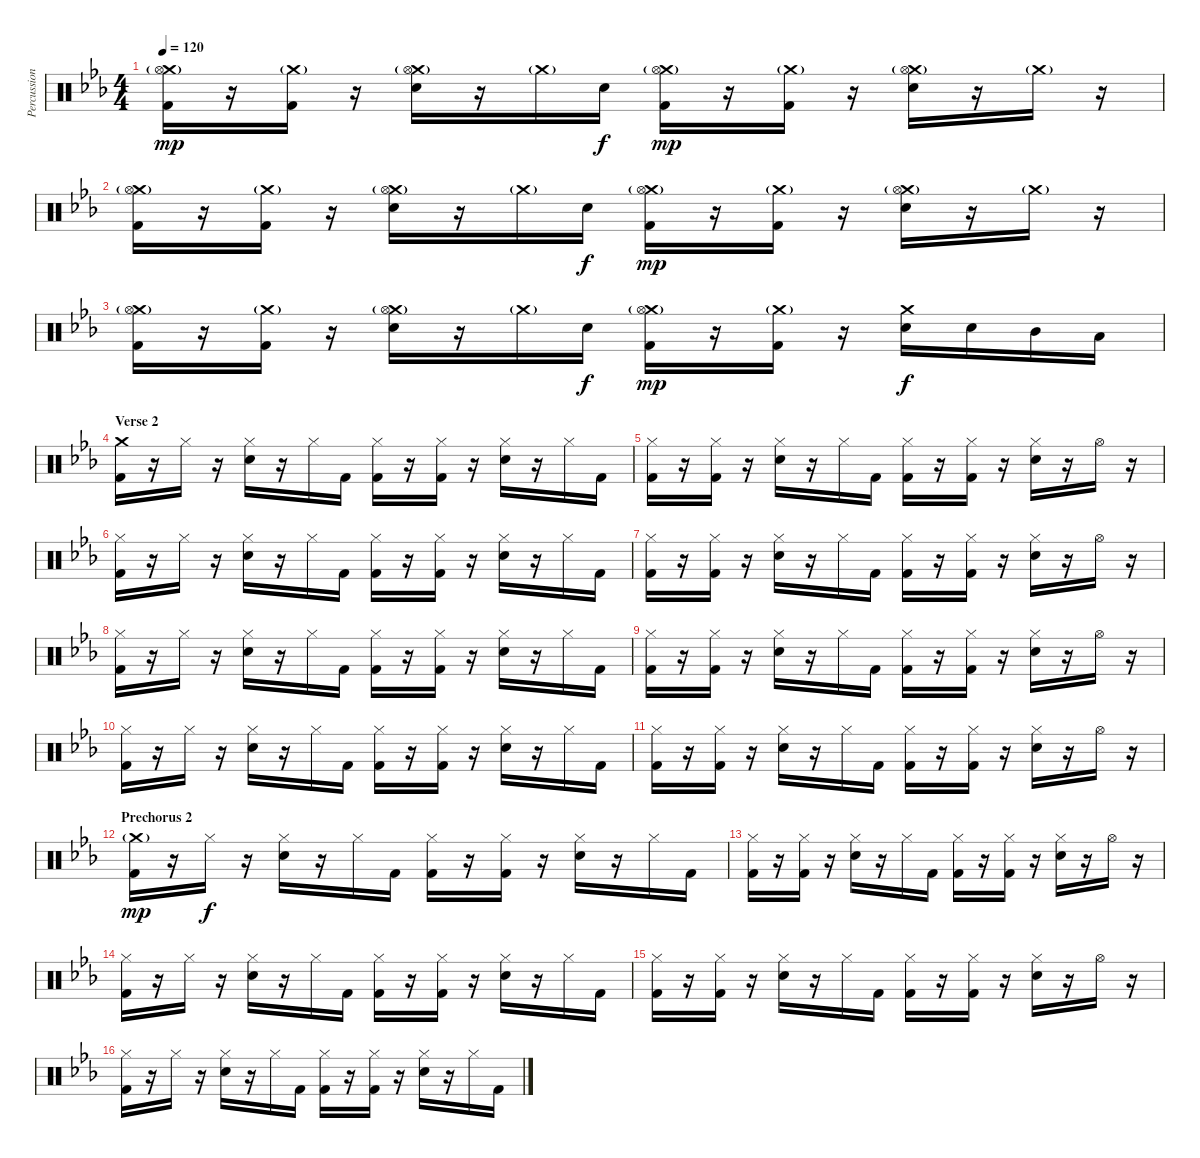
\track ("Percussion" "Percussion") {instrument percussion}
\staff {score}
\articulation defaults
\ts (4 4)
\tempo 120
\clef neutral
\ks eb
("Crash medium (hit)"{g} "Hi-Hat (open)" "Kick (hit) 2").16{dy mp} r.16 ("Crash medium (hit)"{g} "Kick (hit) 2").16 r.16 ("Crash medium (hit)"{g} "Hi-Hat (open)" "Electric Snare (hit)").16 r.16 "Crash medium (hit)"{g}.16 "Electric Snare (hit)".16{dy f} ("Crash medium (hit)"{g} "Hi-Hat (open)" "Kick (hit) 2").16{dy mp} r.16 ("Crash medium (hit)"{g} "Kick (hit) 2").16 r.16 ("Crash medium (hit)"{g} "Hi-Hat (open)" "Electric Snare (hit)").16 r.16 "Crash medium (hit)"{g}.16 r.16 |
("Crash medium (hit)"{g} "Hi-Hat (open)" "Kick (hit) 2").16 r.16 ("Crash medium (hit)"{g} "Kick (hit) 2").16 r.16 ("Crash medium (hit)"{g} "Hi-Hat (open)" "Electric Snare (hit)").16 r.16 "Crash medium (hit)"{g}.16 "Electric Snare (hit)".16{dy f} ("Crash medium (hit)"{g} "Hi-Hat (open)" "Kick (hit) 2").16{dy mp} r.16 ("Crash medium (hit)"{g} "Kick (hit) 2").16 r.16 ("Crash medium (hit)"{g} "Hi-Hat (open)" "Electric Snare (hit)").16 r.16 "Crash medium (hit)"{g}.16 r.16 |
("Crash medium (hit)"{g} "Hi-Hat (open)" "Kick (hit) 2").16 r.16 ("Crash medium (hit)"{g} "Kick (hit) 2").16 r.16 ("Crash medium (hit)"{g} "Hi-Hat (open)" "Electric Snare (hit)").16 r.16 "Crash medium (hit)"{g}.16 "Electric Snare (hit)".16{dy f} ("Crash medium (hit)"{g} "Hi-Hat (open)" "Kick (hit) 2").16{dy mp} r.16 ("Crash medium (hit)"{g} "Kick (hit) 2").16 r.16 ("Crash medium (hit)" "Electric Snare (hit)").16{dy f} "Electric Snare (hit)".16 "Mid Tom (hit)".16 "Low Tom (hit)".16 |
\section ("" "Verse 2")
("Crash medium (hit)" "Kick (hit) 2").16 r.16 "Hi-Hat (closed)".16 r.16 ("Hi-Hat (closed)" "Electric Snare (hit)").16 r.16 "Hi-Hat (closed)".16 "Kick (hit) 2".16 ("Hi-Hat (closed)" "Kick (hit) 2").16 r.16 ("Hi-Hat (closed)" "Kick (hit) 2").16 r.16 ("Hi-Hat (closed)" "Electric Snare (hit)").16 r.16 "Hi-Hat (closed)".16 "Kick (hit) 2".16 |
("Hi-Hat (closed)" "Kick (hit) 2").16 r.16 ("Hi-Hat (closed)" "Kick (hit) 2").16 r.16 ("Hi-Hat (closed)" "Electric Snare (hit)").16 r.16 "Hi-Hat (closed)".16 "Kick (hit) 2".16 ("Hi-Hat (closed)" "Kick (hit) 2").16 r.16 ("Hi-Hat (closed)" "Kick (hit) 2").16 r.16 ("Hi-Hat (closed)" "Electric Snare (hit)").16 r.16 "Hi-Hat (open)".16 r.16 |
("Hi-Hat (closed)" "Kick (hit) 2").16 r.16 "Hi-Hat (closed)".16 r.16 ("Hi-Hat (closed)" "Electric Snare (hit)").16 r.16 "Hi-Hat (closed)".16 "Kick (hit) 2".16 ("Hi-Hat (closed)" "Kick (hit) 2").16 r.16 ("Hi-Hat (closed)" "Kick (hit) 2").16 r.16 ("Hi-Hat (closed)" "Electric Snare (hit)").16 r.16 "Hi-Hat (closed)".16 "Kick (hit) 2".16 |
("Hi-Hat (closed)" "Kick (hit) 2").16 r.16 ("Hi-Hat (closed)" "Kick (hit) 2").16 r.16 ("Hi-Hat (closed)" "Electric Snare (hit)").16 r.16 "Hi-Hat (closed)".16 "Kick (hit) 2".16 ("Hi-Hat (closed)" "Kick (hit) 2").16 r.16 ("Hi-Hat (closed)" "Kick (hit) 2").16 r.16 ("Hi-Hat (closed)" "Electric Snare (hit)").16 r.16 "Hi-Hat (open)".16 r.16 |
("Hi-Hat (closed)" "Kick (hit) 2").16 r.16 "Hi-Hat (closed)".16 r.16 ("Hi-Hat (closed)" "Electric Snare (hit)").16 r.16 "Hi-Hat (closed)".16 "Kick (hit) 2".16 ("Hi-Hat (closed)" "Kick (hit) 2").16 r.16 ("Hi-Hat (closed)" "Kick (hit) 2").16 r.16 ("Hi-Hat (closed)" "Electric Snare (hit)").16 r.16 "Hi-Hat (closed)".16 "Kick (hit) 2".16 |
("Hi-Hat (closed)" "Kick (hit) 2").16 r.16 ("Hi-Hat (closed)" "Kick (hit) 2").16 r.16 ("Hi-Hat (closed)" "Electric Snare (hit)").16 r.16 "Hi-Hat (closed)".16 "Kick (hit) 2".16 ("Hi-Hat (closed)" "Kick (hit) 2").16 r.16 ("Hi-Hat (closed)" "Kick (hit) 2").16 r.16 ("Hi-Hat (closed)" "Electric Snare (hit)").16 r.16 "Hi-Hat (open)".16 r.16 |
("Hi-Hat (closed)" "Kick (hit) 2").16 r.16 "Hi-Hat (closed)".16 r.16 ("Hi-Hat (closed)" "Electric Snare (hit)").16 r.16 "Hi-Hat (closed)".16 "Kick (hit) 2".16 ("Hi-Hat (closed)" "Kick (hit) 2").16 r.16 ("Hi-Hat (closed)" "Kick (hit) 2").16 r.16 ("Hi-Hat (closed)" "Electric Snare (hit)").16 r.16 "Hi-Hat (closed)".16 "Kick (hit) 2".16 |
("Hi-Hat (closed)" "Kick (hit) 2").16 r.16 ("Hi-Hat (closed)" "Kick (hit) 2").16 r.16 ("Hi-Hat (closed)" "Electric Snare (hit)").16 r.16 "Hi-Hat (closed)".16 "Kick (hit) 2".16 ("Hi-Hat (closed)" "Kick (hit) 2").16 r.16 ("Hi-Hat (closed)" "Kick (hit) 2").16 r.16 ("Hi-Hat (closed)" "Electric Snare (hit)").16 r.16 "Hi-Hat (open)".16 r.16 |
\section ("" "Prechorus 2")
("Crash medium (hit)"{g} "Kick (hit) 2").16{dy mp} r.16 "Hi-Hat (closed)".16{dy f} r.16 ("Hi-Hat (closed)" "Electric Snare (hit)").16 r.16 "Hi-Hat (closed)".16 "Kick (hit) 2".16 ("Hi-Hat (closed)" "Kick (hit) 2").16 r.16 ("Hi-Hat (closed)" "Kick (hit) 2").16 r.16 ("Hi-Hat (closed)" "Electric Snare (hit)").16 r.16 "Hi-Hat (closed)".16 "Kick (hit) 2".16 |
("Hi-Hat (closed)" "Kick (hit) 2").16 r.16 ("Hi-Hat (closed)" "Kick (hit) 2").16 r.16 ("Hi-Hat (closed)" "Electric Snare (hit)").16 r.16 "Hi-Hat (closed)".16 "Kick (hit) 2".16 ("Hi-Hat (closed)" "Kick (hit) 2").16 r.16 ("Hi-Hat (closed)" "Kick (hit) 2").16 r.16 ("Hi-Hat (closed)" "Electric Snare (hit)").16 r.16 "Hi-Hat (open)".16 r.16 |
("Hi-Hat (closed)" "Kick (hit) 2").16 r.16 "Hi-Hat (closed)".16 r.16 ("Hi-Hat (closed)" "Electric Snare (hit)").16 r.16 "Hi-Hat (closed)".16 "Kick (hit) 2".16 ("Hi-Hat (closed)" "Kick (hit) 2").16 r.16 ("Hi-Hat (closed)" "Kick (hit) 2").16 r.16 ("Hi-Hat (closed)" "Electric Snare (hit)").16 r.16 "Hi-Hat (closed)".16 "Kick (hit) 2".16 |
("Hi-Hat (closed)" "Kick (hit) 2").16 r.16 ("Hi-Hat (closed)" "Kick (hit) 2").16 r.16 ("Hi-Hat (closed)" "Electric Snare (hit)").16 r.16 "Hi-Hat (closed)".16 "Kick (hit) 2".16 ("Hi-Hat (closed)" "Kick (hit) 2").16 r.16 ("Hi-Hat (closed)" "Kick (hit) 2").16 r.16 ("Hi-Hat (closed)" "Electric Snare (hit)").16 r.16 "Hi-Hat (open)".16 r.16 |
("Hi-Hat (closed)" "Kick (hit) 2").16 r.16 "Hi-Hat (closed)".16 r.16 ("Hi-Hat (closed)" "Electric Snare (hit)").16 r.16 "Hi-Hat (closed)".16 "Kick (hit) 2".16 ("Hi-Hat (closed)" "Kick (hit) 2").16 r.16 ("Hi-Hat (closed)" "Kick (hit) 2").16 r.16 ("Hi-Hat (closed)" "Electric Snare (hit)").16 r.16 "Hi-Hat (closed)".16 "Kick (hit) 2".16
